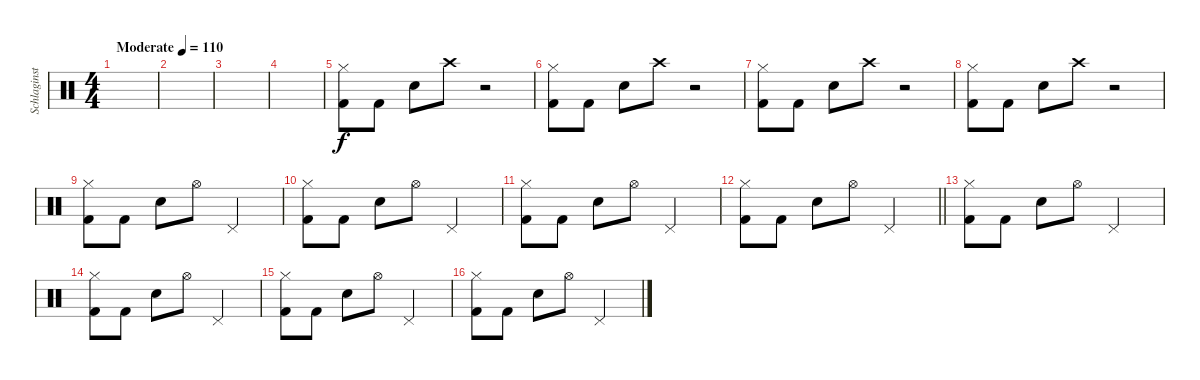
\track ("Schlaginstrumente - Auswahl" "Schlaginst") {instrument percussion}
\staff {score}
\articulation defaults
\ts (4 4)
\tempo (110 "Moderate")
\clef neutral
\ks c
|
|
|
|
("Hi-Hat (closed)" "Kick (hit) 2").8 "Kick (hit) 2".8 "Snare (hit) 2".8 "Crash high (hit)".8 r.2 |
("Hi-Hat (closed)" "Kick (hit) 2").8 "Kick (hit) 2".8 "Snare (hit) 2".8 "Crash high (hit)".8 r.2 |
("Hi-Hat (closed)" "Kick (hit) 2").8 "Kick (hit) 2".8 "Snare (hit) 2".8 "Crash high (hit)".8 r.2 |
("Hi-Hat (closed)" "Kick (hit) 2").8 "Kick (hit) 2".8 "Snare (hit) 2".8 "Crash high (hit)".8 r.2 |
("Hi-Hat (closed)" "Kick (hit) 2").8 "Kick (hit) 2".8 "Snare (hit) 2".8 "Hi-Hat (open)".8 "Pedal Hi-Hat (hit)".2 |
("Hi-Hat (closed)" "Kick (hit) 2").8 "Kick (hit) 2".8 "Snare (hit) 2".8 "Hi-Hat (open)".8 "Pedal Hi-Hat (hit)".2 |
("Hi-Hat (closed)" "Kick (hit) 2").8 "Kick (hit) 2".8 "Snare (hit) 2".8 "Hi-Hat (open)".8 "Pedal Hi-Hat (hit)".2 |
\barLineRight lightlight
("Hi-Hat (closed)" "Kick (hit) 2").8 "Kick (hit) 2".8 "Snare (hit) 2".8 "Hi-Hat (open)".8 "Pedal Hi-Hat (hit)".2 |
("Hi-Hat (closed)" "Kick (hit) 2").8 "Kick (hit) 2".8 "Snare (hit) 2".8 "Hi-Hat (open)".8 "Pedal Hi-Hat (hit)".2 |
("Hi-Hat (closed)" "Kick (hit) 2").8 "Kick (hit) 2".8 "Snare (hit) 2".8 "Hi-Hat (open)".8 "Pedal Hi-Hat (hit)".2 |
("Hi-Hat (closed)" "Kick (hit) 2").8 "Kick (hit) 2".8 "Snare (hit) 2".8 "Hi-Hat (open)".8 "Pedal Hi-Hat (hit)".2 |
("Hi-Hat (closed)" "Kick (hit) 2").8 "Kick (hit) 2".8 "Snare (hit) 2".8 "Hi-Hat (open)".8 "Pedal Hi-Hat (hit)".2
